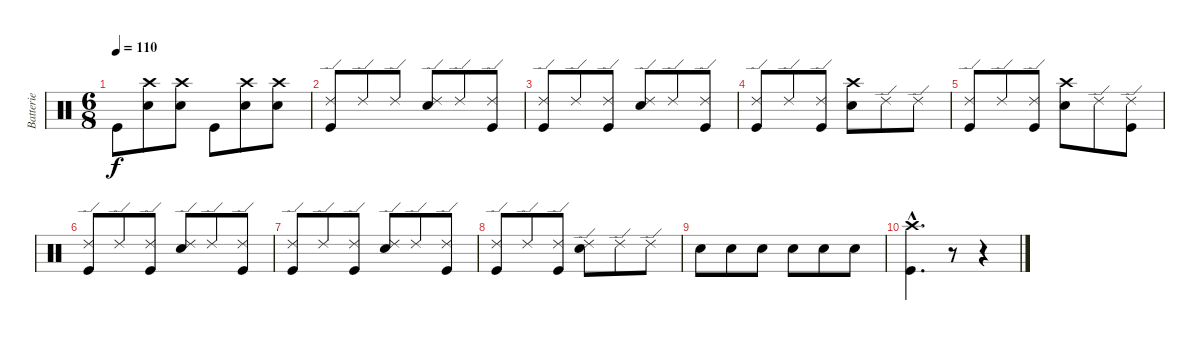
\track ("Batterie" "Batterie") {instrument percussion}
\staff {score}
\articulation defaults
\ts (6 8)
\tempo 110
\clef neutral
\ks c "Kick (hit)".8{dy f}
("Crash high (hit)" "Snare (hit) 2").8 ("Crash high (hit)" "Snare (hit) 2").8 "Kick (hit)".8 ("Crash high (hit)" "Snare (hit) 2").8 ("Crash high (hit)" "Snare (hit) 2").8 |
("Ride (edge) 2" "Kick (hit)").8 "Ride (edge) 2".8 "Ride (edge) 2".8 ("Ride (edge) 2" "Snare (hit) 2").8 "Ride (edge) 2".8 ("Ride (edge) 2" "Kick (hit)").8 |
("Ride (edge) 2" "Kick (hit)").8 "Ride (edge) 2".8 ("Ride (edge) 2" "Kick (hit)").8 ("Ride (edge) 2" "Snare (hit) 2").8 "Ride (edge) 2".8 ("Ride (edge) 2" "Kick (hit)").8 |
("Ride (edge) 2" "Kick (hit)").8 "Ride (edge) 2".8 ("Ride (edge) 2" "Kick (hit)").8 ("Crash high (hit)" "Snare (hit) 2").8 "Ride (edge) 2".8 "Ride (edge) 2".8 |
("Ride (edge) 2" "Kick (hit)").8 "Ride (edge) 2".8 ("Ride (edge) 2" "Kick (hit)").8 ("Crash high (hit)" "Snare (hit) 2").8 "Ride (edge) 2".8 ("Ride (edge) 2" "Kick (hit)").8 |
("Ride (edge) 2" "Kick (hit)").8 "Ride (edge) 2".8 ("Ride (edge) 2" "Kick (hit)").8 ("Ride (edge) 2" "Snare (hit) 2").8 "Ride (edge) 2".8 ("Ride (edge) 2" "Kick (hit)").8 |
("Ride (edge) 2" "Kick (hit)").8 "Ride (edge) 2".8 ("Ride (edge) 2" "Kick (hit)").8 ("Ride (edge) 2" "Snare (hit) 2").8 "Ride (edge) 2".8 ("Ride (edge) 2" "Kick (hit)").8 |
("Ride (edge) 2" "Kick (hit)").8 "Ride (edge) 2".8 ("Ride (edge) 2" "Kick (hit)").8 ("Ride (edge) 2" "Snare (hit) 2").8 "Ride (edge) 2".8 "Ride (edge) 2".8 |
"Snare (hit) 2".8 "Snare (hit) 2".8 "Snare (hit) 2".8 "Snare (hit) 2".8 "Snare (hit) 2".8 "Snare (hit) 2".8 |
("Crash high (hit)"{hac} "Kick (hit)"{hac}).4{d} r.8 r.4
